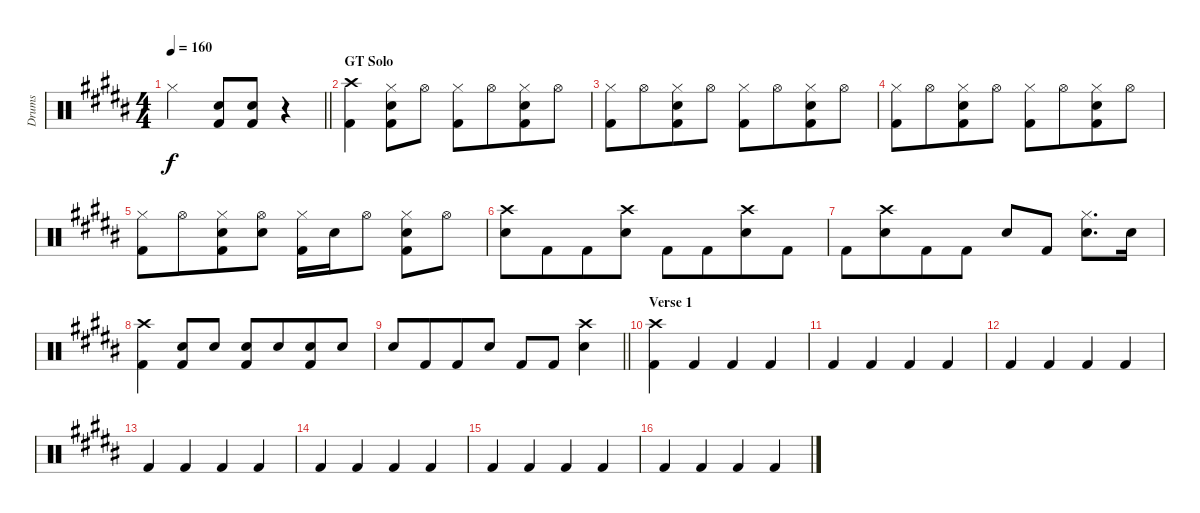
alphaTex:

\track ("Drums" "Drums") {instrument percussion}
\staff {score}
\articulation defaults
\ts (4 4)
\tempo 160
\clef neutral
\barLineRight lightlight
\ks b "Hi-Hat (closed)".2{dy f}
("Snare (hit) 2" "Kick (hit) 2").8 ("Snare (hit) 2" "Kick (hit) 2").8 r.4 |
\section ("" "GT Solo")
("Kick (hit) 2" "Crash high (hit)").4 ("Hi-Hat (closed)" "Snare (hit) 2" "Kick (hit) 2").8 "Hi-Hat (open)".8 ("Hi-Hat (closed)" "Kick (hit) 2").8 "Hi-Hat (open)".8{beam merge} ("Hi-Hat (closed)" "Snare (hit) 2" "Kick (hit) 2").8 "Hi-Hat (open)".8 |
("Hi-Hat (closed)" "Kick (hit) 2").8 "Hi-Hat (open)".8{beam merge} ("Hi-Hat (closed)" "Snare (hit) 2" "Kick (hit) 2").8 "Hi-Hat (open)".8 ("Hi-Hat (closed)" "Kick (hit) 2").8 "Hi-Hat (open)".8{beam merge} ("Hi-Hat (closed)" "Snare (hit) 2" "Kick (hit) 2").8 "Hi-Hat (open)".8 |
("Hi-Hat (closed)" "Kick (hit) 2").8 "Hi-Hat (open)".8{beam merge} ("Hi-Hat (closed)" "Snare (hit) 2" "Kick (hit) 2").8 "Hi-Hat (open)".8 ("Hi-Hat (closed)" "Kick (hit) 2").8 "Hi-Hat (open)".8{beam merge} ("Hi-Hat (closed)" "Snare (hit) 2" "Kick (hit) 2").8 "Hi-Hat (open)".8 |
("Hi-Hat (closed)" "Kick (hit) 2").8 "Hi-Hat (open)".8{beam merge} ("Hi-Hat (closed)" "Snare (hit) 2" "Kick (hit) 2").8 ("Hi-Hat (open)" "Snare (hit) 2").8 ("Hi-Hat (closed)" "Kick (hit) 2").16 "Snare (hit) 2".16 "Hi-Hat (open)".8 ("Hi-Hat (closed)" "Snare (hit) 2" "Kick (hit) 2").8 "Hi-Hat (open)".8 |
("Snare (hit) 2" "Crash high (hit)").8{beam Down} "Kick (hit) 2".8{beam Down beam merge} "Kick (hit) 2".8{beam Down} ("Snare (hit) 2" "Crash high (hit)").8{beam Down} "Kick (hit) 2".8{beam Down} "Kick (hit) 2".8{beam Down beam merge} ("Snare (hit) 2" "Crash high (hit)").8{beam Down} "Kick (hit) 2".8{beam Down} |
"Kick (hit) 2".8 ("Snare (hit) 2" "Crash high (hit)").8{beam merge} "Kick (hit) 2".8 "Kick (hit) 2".8 "Snare (hit) 2".8 "Kick (hit) 2".8 ("Hi-Hat (closed)" "Snare (hit) 2").8{d} "Snare (hit) 2".16 |
("Kick (hit) 2" "Crash high (hit)").4 ("Snare (hit) 2" "Kick (hit) 2").8 "Snare (hit) 2".8 ("Snare (hit) 2" "Kick (hit) 2").8 "Snare (hit) 2".8{beam merge} ("Snare (hit) 2" "Kick (hit) 2").8 "Snare (hit) 2".8 |
\barLineRight lightlight "Snare (hit) 2".8 "Kick (hit) 2".8{beam merge} "Kick (hit) 2".8 "Snare (hit) 2".8 "Kick (hit) 2".8 "Kick (hit) 2".8
("Snare (hit) 2" "Crash high (hit)").4 |
\section ("" "Verse 1")
("Kick (hit) 2" "Crash high (hit)").4 "Kick (hit) 2".4 "Kick (hit) 2".4 "Kick (hit) 2".4 |
"Kick (hit) 2".4 "Kick (hit) 2".4 "Kick (hit) 2".4 "Kick (hit) 2".4 |
"Kick (hit) 2".4 "Kick (hit) 2".4 "Kick (hit) 2".4 "Kick (hit) 2".4 |
"Kick (hit) 2".4 "Kick (hit) 2".4 "Kick (hit) 2".4 "Kick (hit) 2".4 |
"Kick (hit) 2".4 "Kick (hit) 2".4 "Kick (hit) 2".4 "Kick (hit) 2".4 |
"Kick (hit) 2".4 "Kick (hit) 2".4 "Kick (hit) 2".4 "Kick (hit) 2".4 |
"Kick (hit) 2".4 "Kick (hit) 2".4 "Kick (hit) 2".4 "Kick (hit) 2".4
